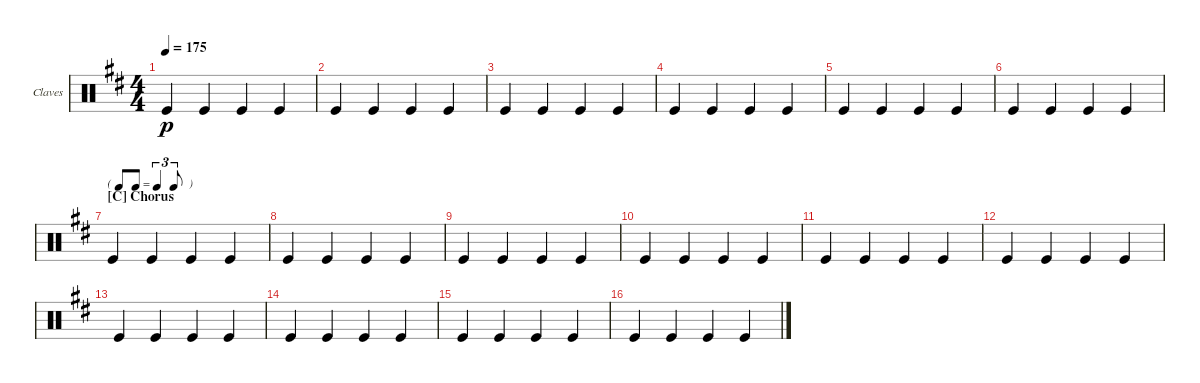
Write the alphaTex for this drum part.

\defaultSystemsLayout 4
\bracketExtendMode groupsimilarinstruments
\firstSystemTrackNameOrientation horizontal
\otherSystemsTrackNameOrientation horizontal
\track ("Claves" "Claves") {instrument percussion}
\staff {score}
\articulation defaults
\ts (4 4)
\tempo 175
\clef neutral
\ks d "Kick (hit)".4{dy p} "Kick (hit)".4 "Kick (hit)".4 "Kick (hit)".4
|
"Kick (hit)".4 "Kick (hit)".4 "Kick (hit)".4 "Kick (hit)".4 |
"Kick (hit)".4 "Kick (hit)".4 "Kick (hit)".4 "Kick (hit)".4 |
"Kick (hit)".4 "Kick (hit)".4 "Kick (hit)".4 "Kick (hit)".4 |
"Kick (hit)".4 "Kick (hit)".4 "Kick (hit)".4 "Kick (hit)".4 |
"Kick (hit)".4 "Kick (hit)".4 "Kick (hit)".4 "Kick (hit)".4 |
\tf triplet8th
\section ("C" "Chorus")
"Kick (hit)".4 "Kick (hit)".4 "Kick (hit)".4 "Kick (hit)".4 |
"Kick (hit)".4 "Kick (hit)".4 "Kick (hit)".4 "Kick (hit)".4 |
"Kick (hit)".4 "Kick (hit)".4 "Kick (hit)".4 "Kick (hit)".4 |
"Kick (hit)".4 "Kick (hit)".4 "Kick (hit)".4 "Kick (hit)".4 |
"Kick (hit)".4 "Kick (hit)".4 "Kick (hit)".4 "Kick (hit)".4 |
"Kick (hit)".4 "Kick (hit)".4 "Kick (hit)".4 "Kick (hit)".4 |
"Kick (hit)".4 "Kick (hit)".4 "Kick (hit)".4 "Kick (hit)".4 |
"Kick (hit)".4 "Kick (hit)".4 "Kick (hit)".4 "Kick (hit)".4 |
"Kick (hit)".4 "Kick (hit)".4 "Kick (hit)".4 "Kick (hit)".4 |
"Kick (hit)".4 "Kick (hit)".4 "Kick (hit)".4 "Kick (hit)".4
